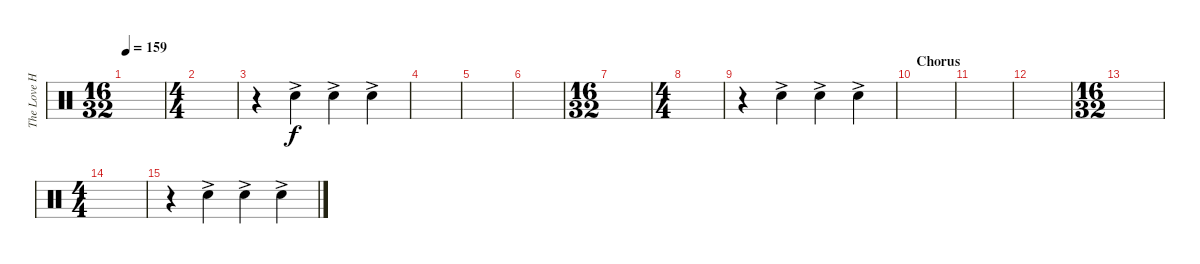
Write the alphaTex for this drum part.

\track ("The Love Haters (Hand Clap)(Drums)" "The Love H") {instrument percussion}
\staff {score}
\articulation defaults
\ts (16 32)
\tempo 159
\clef neutral
\ks c
|
\ts (4 4)
|
r.4 "Hand Clap (hit)"{ac}.4 "Hand Clap (hit)"{ac}.4 "Hand Clap (hit)"{ac}.4 |
|
|
|
\ts (16 32)
|
\ts (4 4)
|
r.4 "Hand Clap (hit)"{ac}.4 "Hand Clap (hit)"{ac}.4 "Hand Clap (hit)"{ac}.4 |
\section ("" "Chorus")
|
|
|
\ts (16 32)
|
\ts (4 4)
|
r.4 "Hand Clap (hit)"{ac}.4 "Hand Clap (hit)"{ac}.4 "Hand Clap (hit)"{ac}.4
